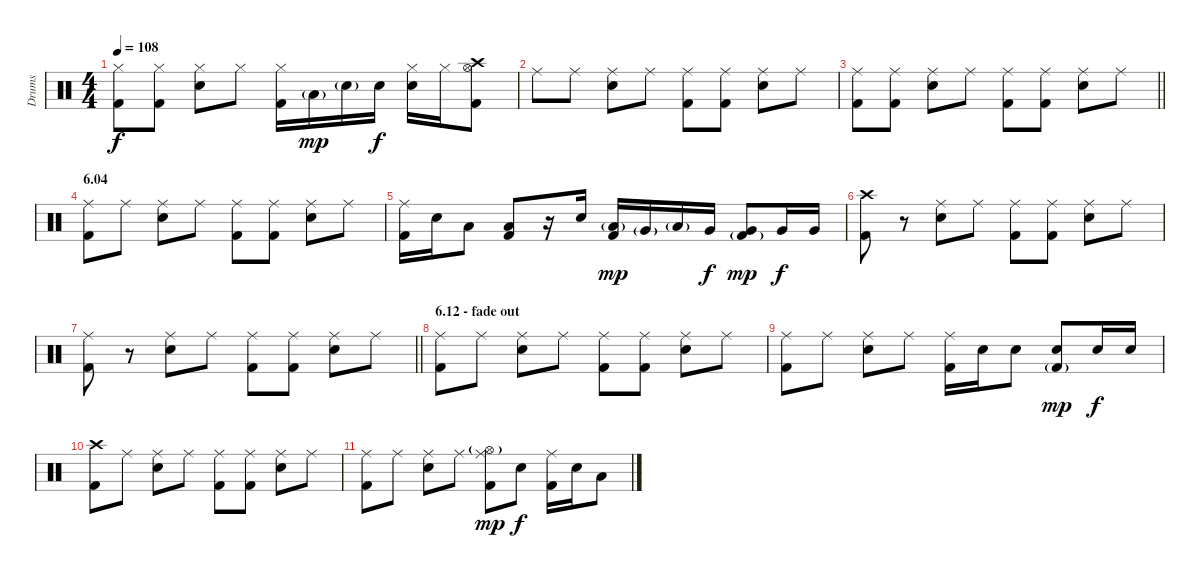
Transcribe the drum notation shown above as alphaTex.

\track ("Drums" "Drums") {instrument percussion}
\staff {score}
\articulation defaults
\ts (4 4)
\tempo 108
\clef neutral
\ks c
("Hi-Hat (closed)" "Kick (hit) 2").8{dy f} ("Hi-Hat (closed)" "Kick (hit) 2").8 ("Hi-Hat (closed)" "Electric Snare (hit)").8 "Hi-Hat (closed)".8 ("Hi-Hat (closed)" "Kick (hit) 2").16 "Low Tom (hit)"{g}.16{dy mp} "Electric Snare (hit)"{g}.16 "Electric Snare (hit)".16{dy f} ("Hi-Hat (closed)" "Electric Snare (hit)").16 "Hi-Hat (closed)".16 ("Crash high (hit)" "Hi-Hat (open)" "Kick (hit) 2").8 |
"Ride (middle)".8 "Ride (middle)".8 ("Ride (middle)" "Electric Snare (hit)").8 "Ride (middle)".8 ("Ride (middle)" "Kick (hit) 2").8 ("Ride (middle)" "Kick (hit) 2").8 ("Ride (middle)" "Electric Snare (hit)").8 "Ride (middle)".8 |
\barLineRight lightlight
("Ride (middle)" "Kick (hit) 2").8 ("Ride (middle)" "Kick (hit) 2").8 ("Ride (middle)" "Electric Snare (hit)").8 "Ride (middle)".8 ("Ride (middle)" "Kick (hit) 2").8 ("Ride (middle)" "Kick (hit) 2").8 ("Ride (middle)" "Electric Snare (hit)").8 "Ride (middle)".8 |
\section ("" "6.04")
("Ride (middle)" "Kick (hit) 2").8 "Ride (middle)".8 ("Ride (middle)" "Electric Snare (hit)").8 "Ride (middle)".8 ("Ride (middle)" "Kick (hit) 2").8 ("Ride (middle)" "Kick (hit) 2").8 ("Ride (middle)" "Electric Snare (hit)").8 "Ride (middle)".8 |
("Ride (middle)" "Kick (hit) 2").16 "Electric Snare (hit)".16 "Low Tom (hit)".8 ("Low Tom (hit)" "Kick (hit) 2").8 r.16 "Electric Snare (hit)".16 ("Low Tom (hit)"{g} "Kick (hit) 2").16{dy mp} "Very Low Tom (hit)"{g}.16 "Low Tom (hit)"{g}.16 "Very Low Tom (hit)".16{dy f} ("Very Low Tom (hit)" "Kick (hit) 2"{g}).8{dy mp} "Very Low Tom (hit)".16{dy f} "Very Low Tom (hit)".16 |
("Crash high (hit)" "Kick (hit) 2").8 r.8 ("Ride (middle)" "Electric Snare (hit)").8 "Ride (middle)".8 ("Ride (middle)" "Kick (hit) 2").8 ("Ride (middle)" "Kick (hit) 2").8 ("Ride (middle)" "Electric Snare (hit)").8 "Ride (middle)".8 |
\barLineRight lightlight
("Ride (middle)" "Kick (hit) 2").8 r.8 ("Ride (middle)" "Electric Snare (hit)").8 "Ride (middle)".8 ("Ride (middle)" "Kick (hit) 2").8 ("Ride (middle)" "Kick (hit) 2").8 ("Ride (middle)" "Electric Snare (hit)").8 "Ride (middle)".8 |
\section ("" "6.12 - fade out")
("Ride (middle)" "Kick (hit) 2").8 "Ride (middle)".8 ("Ride (middle)" "Electric Snare (hit)").8 "Ride (middle)".8 ("Ride (middle)" "Kick (hit) 2").8 ("Ride (middle)" "Kick (hit) 2").8 ("Ride (middle)" "Electric Snare (hit)").8 "Ride (middle)".8 |
("Ride (middle)" "Kick (hit) 2").8 "Ride (middle)".8 ("Ride (middle)" "Electric Snare (hit)").8 "Ride (middle)".8 ("Ride (middle)" "Kick (hit) 2").16 "Electric Snare (hit)".16 "Electric Snare (hit)".8 ("Electric Snare (hit)" "Kick (hit) 2"{g}).8{dy mp} "Electric Snare (hit)".16{dy f} "Electric Snare (hit)".16 |
("Crash high (hit)" "Kick (hit) 2").8 "Ride (middle)".8 ("Ride (middle)" "Electric Snare (hit)").8 "Ride (middle)".8 ("Ride (middle)" "Kick (hit) 2").8 ("Ride (middle)" "Kick (hit) 2").8 ("Ride (middle)" "Electric Snare (hit)").8 "Ride (middle)".8 |
("Ride (middle)" "Kick (hit) 2").8 "Ride (middle)".8 ("Ride (middle)" "Electric Snare (hit)").8 "Ride (middle)".8 ("Ride (middle)" "Hi-Hat (open)"{g} "Kick (hit) 2").8{dy mp} "Electric Snare (hit)".8{dy f} ("Ride (middle)" "Kick (hit) 2").16 "Electric Snare (hit)".16 "Low Tom (hit)".8
